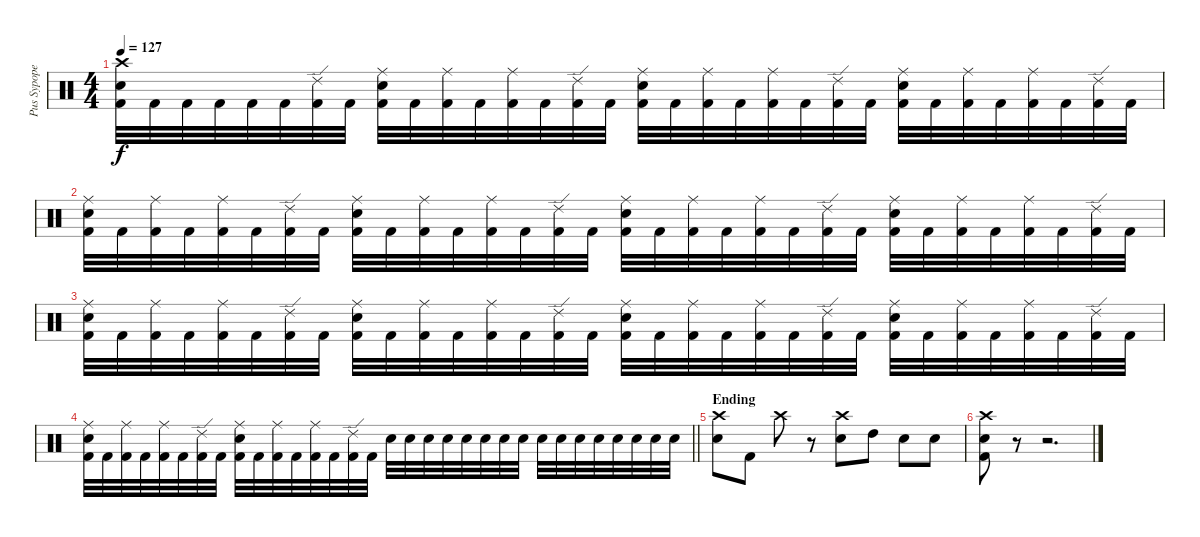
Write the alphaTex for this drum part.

\track ("Pus Sypope" "Pus Sypope") {instrument percussion}
\staff {score}
\articulation defaults
\ts (4 4)
\tempo 127
\clef neutral
\ks c
("Crash high (hit)" "Electric Snare (hit)" "Kick (hit) 2").32{dy f} "Kick (hit) 2".32 "Kick (hit) 2".32 "Kick (hit) 2".32 "Kick (hit) 2".32 "Kick (hit) 2".32 ("Ride (edge) 2" "Kick (hit) 2").32 "Kick (hit) 2".32 ("Ride (middle)" "Electric Snare (hit)" "Kick (hit) 2").32 "Kick (hit) 2".32 ("Ride (middle)" "Kick (hit) 2").32 "Kick (hit) 2".32 ("Ride (middle)" "Kick (hit) 2").32 "Kick (hit) 2".32 ("Ride (edge) 2" "Kick (hit) 2").32 "Kick (hit) 2".32 ("Ride (middle)" "Electric Snare (hit)" "Kick (hit) 2").32 "Kick (hit) 2".32 ("Ride (middle)" "Kick (hit) 2").32 "Kick (hit) 2".32 ("Ride (middle)" "Kick (hit) 2").32 "Kick (hit) 2".32 ("Ride (edge) 2" "Kick (hit) 2").32 "Kick (hit) 2".32 ("Ride (middle)" "Electric Snare (hit)" "Kick (hit) 2").32 "Kick (hit) 2".32 ("Ride (middle)" "Kick (hit) 2").32 "Kick (hit) 2".32 ("Ride (middle)" "Kick (hit) 2").32 "Kick (hit) 2".32 ("Ride (edge) 2" "Kick (hit) 2").32 "Kick (hit) 2".32 |
("Ride (middle)" "Electric Snare (hit)" "Kick (hit) 2").32 "Kick (hit) 2".32 ("Ride (middle)" "Kick (hit) 2").32 "Kick (hit) 2".32 ("Ride (middle)" "Kick (hit) 2").32 "Kick (hit) 2".32 ("Ride (edge) 2" "Kick (hit) 2").32 "Kick (hit) 2".32 ("Ride (middle)" "Electric Snare (hit)" "Kick (hit) 2").32 "Kick (hit) 2".32 ("Ride (middle)" "Kick (hit) 2").32 "Kick (hit) 2".32 ("Ride (middle)" "Kick (hit) 2").32 "Kick (hit) 2".32 ("Ride (edge) 2" "Kick (hit) 2").32 "Kick (hit) 2".32 ("Ride (middle)" "Electric Snare (hit)" "Kick (hit) 2").32 "Kick (hit) 2".32 ("Ride (middle)" "Kick (hit) 2").32 "Kick (hit) 2".32 ("Ride (middle)" "Kick (hit) 2").32 "Kick (hit) 2".32 ("Ride (edge) 2" "Kick (hit) 2").32 "Kick (hit) 2".32 ("Ride (middle)" "Electric Snare (hit)" "Kick (hit) 2").32 "Kick (hit) 2".32 ("Ride (middle)" "Kick (hit) 2").32 "Kick (hit) 2".32 ("Ride (middle)" "Kick (hit) 2").32 "Kick (hit) 2".32 ("Ride (edge) 2" "Kick (hit) 2").32 "Kick (hit) 2".32 |
("Ride (middle)" "Electric Snare (hit)" "Kick (hit) 2").32 "Kick (hit) 2".32 ("Ride (middle)" "Kick (hit) 2").32 "Kick (hit) 2".32 ("Ride (middle)" "Kick (hit) 2").32 "Kick (hit) 2".32 ("Ride (edge) 2" "Kick (hit) 2").32 "Kick (hit) 2".32 ("Ride (middle)" "Electric Snare (hit)" "Kick (hit) 2").32 "Kick (hit) 2".32 ("Ride (middle)" "Kick (hit) 2").32 "Kick (hit) 2".32 ("Ride (middle)" "Kick (hit) 2").32 "Kick (hit) 2".32 ("Ride (edge) 2" "Kick (hit) 2").32 "Kick (hit) 2".32 ("Ride (middle)" "Electric Snare (hit)" "Kick (hit) 2").32 "Kick (hit) 2".32 ("Ride (middle)" "Kick (hit) 2").32 "Kick (hit) 2".32 ("Ride (middle)" "Kick (hit) 2").32 "Kick (hit) 2".32 ("Ride (edge) 2" "Kick (hit) 2").32 "Kick (hit) 2".32 ("Ride (middle)" "Electric Snare (hit)" "Kick (hit) 2").32 "Kick (hit) 2".32 ("Ride (middle)" "Kick (hit) 2").32 "Kick (hit) 2".32 ("Ride (middle)" "Kick (hit) 2").32 "Kick (hit) 2".32 ("Ride (edge) 2" "Kick (hit) 2").32 "Kick (hit) 2".32 |
\barLineRight lightlight
("Ride (middle)" "Electric Snare (hit)" "Kick (hit) 2").32 "Kick (hit) 2".32 ("Ride (middle)" "Kick (hit) 2").32 "Kick (hit) 2".32 ("Ride (middle)" "Kick (hit) 2").32 "Kick (hit) 2".32 ("Ride (edge) 2" "Kick (hit) 2").32 "Kick (hit) 2".32 ("Ride (middle)" "Electric Snare (hit)" "Kick (hit) 2").32 "Kick (hit) 2".32 ("Ride (middle)" "Kick (hit) 2").32 "Kick (hit) 2".32 ("Ride (middle)" "Kick (hit) 2").32 "Kick (hit) 2".32 ("Ride (edge) 2" "Kick (hit) 2").32 "Kick (hit) 2".32 "Snare (hit) 2".32 "Snare (hit) 2".32 "Snare (hit) 2".32 "Snare (hit) 2".32 "Snare (hit) 2".32 "Snare (hit) 2".32 "Snare (hit) 2".32 "Snare (hit) 2".32 "Snare (hit) 2".32 "Snare (hit) 2".32 "Snare (hit) 2".32 "Snare (hit) 2".32 "Snare (hit) 2".32 "Snare (hit) 2".32 "Snare (hit) 2".32 "Snare (hit) 2".32 |
\section ("" "Ending")
("Crash high (hit)" "Electric Snare (hit)").8 "Kick (hit) 2".8 "Crash high (hit)".8 r.8 ("Crash high (hit)" "Electric Snare (hit)").8 "High Tom (hit)".8 "Snare (hit) 2".8 "Snare (hit) 2".8 |
("Crash high (hit)" "Electric Snare (hit)" "Kick (hit) 2").8 r.8 r.2{d}
